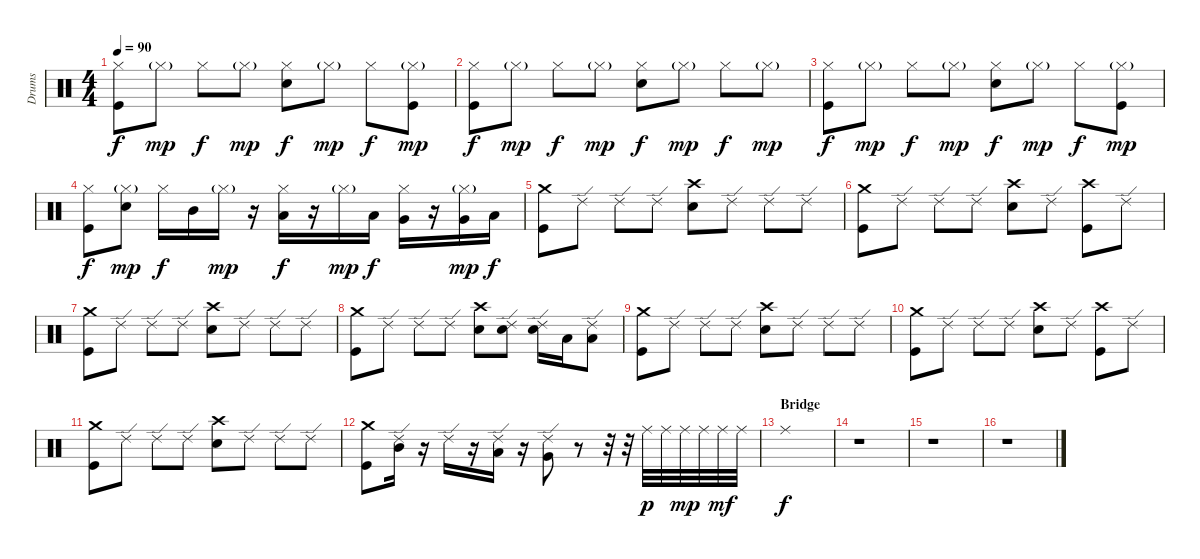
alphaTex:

\track ("Drums" "Drums") {instrument percussion}
\staff {score}
\articulation defaults
\ts (4 4)
\tempo 90
\clef neutral
\ks c
("Hi-Hat (closed)" "Kick (hit)").8{dy f} "Hi-Hat (closed)"{g}.8{dy mp} "Hi-Hat (closed)".8{dy f} "Hi-Hat (closed)"{g}.8{dy mp} ("Hi-Hat (closed)" "Electric Snare (hit)").8{dy f} "Hi-Hat (closed)"{g}.8{dy mp} "Hi-Hat (closed)".8{dy f} ("Hi-Hat (closed)"{g} "Kick (hit)").8{dy mp} |
("Hi-Hat (closed)" "Kick (hit)").8{dy f} "Hi-Hat (closed)"{g}.8{dy mp} "Hi-Hat (closed)".8{dy f} "Hi-Hat (closed)"{g}.8{dy mp} ("Hi-Hat (closed)" "Electric Snare (hit)").8{dy f} "Hi-Hat (closed)"{g}.8{dy mp} "Hi-Hat (closed)".8{dy f} "Hi-Hat (closed)"{g}.8{dy mp} |
("Hi-Hat (closed)" "Kick (hit)").8{dy f} "Hi-Hat (closed)"{g}.8{dy mp} "Hi-Hat (closed)".8{dy f} "Hi-Hat (closed)"{g}.8{dy mp} ("Hi-Hat (closed)" "Electric Snare (hit)").8{dy f} "Hi-Hat (closed)"{g}.8{dy mp} "Hi-Hat (closed)".8{dy f} ("Hi-Hat (closed)"{g} "Kick (hit)").8{dy mp} |
("Hi-Hat (closed)" "Kick (hit)").8{dy f} ("Hi-Hat (closed)"{g} "Electric Snare (hit)").8{dy mp} "Hi-Hat (closed)".16{dy f} "Mid Tom (hit)".16 "Hi-Hat (closed)"{g}.16{dy mp} r.16 ("Hi-Hat (closed)" "Low Tom (hit)").16{dy f} r.16 "Hi-Hat (closed)"{g}.16{dy mp} "Low Tom (hit)".16{dy f} ("Hi-Hat (closed)" "Very Low Tom (hit)").16 r.16 ("Hi-Hat (closed)"{g} "Very Low Tom (hit)").16{dy mp} "Low Floor Tom (hit)".16{dy f} |
("Crash medium (hit)" "Kick (hit)").8 "Ride (edge) 2".8 "Ride (edge) 2".8 "Ride (edge) 2".8 ("Crash high (hit)" "Electric Snare (hit)").8 "Ride (edge) 2".8 "Ride (edge) 2".8 "Ride (edge) 2".8 |
("Crash medium (hit)" "Kick (hit)").8 "Ride (edge) 2".8 "Ride (edge) 2".8 "Ride (edge) 2".8 ("Crash high (hit)" "Electric Snare (hit)").8 "Ride (edge) 2".8 ("Crash high (hit)" "Kick (hit)").8 "Ride (edge) 2".8 |
("Crash medium (hit)" "Kick (hit)").8 "Ride (edge) 2".8 "Ride (edge) 2".8 "Ride (edge) 2".8 ("Crash high (hit)" "Electric Snare (hit)").8 "Ride (edge) 2".8 "Ride (edge) 2".8 "Ride (edge) 2".8 |
("Crash medium (hit)" "Kick (hit)").8 "Ride (edge) 2".8 "Ride (edge) 2".8 "Ride (edge) 2".8 ("Crash high (hit)" "Electric Snare (hit)").8 ("Ride (edge) 2" "Electric Snare (hit)").8 ("Ride (edge) 2" "Electric Snare (hit)").16 "Low Floor Tom (hit)".16 ("Ride (edge) 2" "Low Tom (hit)").8 |
("Crash medium (hit)" "Kick (hit)").8 "Ride (edge) 2".8 "Ride (edge) 2".8 "Ride (edge) 2".8 ("Crash high (hit)" "Electric Snare (hit)").8 "Ride (edge) 2".8 "Ride (edge) 2".8 "Ride (edge) 2".8 |
("Crash medium (hit)" "Kick (hit)").8 "Ride (edge) 2".8 "Ride (edge) 2".8 "Ride (edge) 2".8 ("Crash high (hit)" "Electric Snare (hit)").8 "Ride (edge) 2".8 ("Crash high (hit)" "Kick (hit)").8 "Ride (edge) 2".8 |
("Crash medium (hit)" "Kick (hit)").8 "Ride (edge) 2".8 "Ride (edge) 2".8 "Ride (edge) 2".8 ("Crash high (hit)" "Electric Snare (hit)").8 "Ride (edge) 2".8 "Ride (edge) 2".8 "Ride (edge) 2".8 |
("Crash medium (hit)" "Kick (hit)").8 ("Ride (edge) 2" "Mid Tom (hit)").16 r.16 "Ride (edge) 2".16 r.16 ("Ride (edge) 2" "Low Tom (hit)").16 r.16 ("Ride (edge) 2" "Very Low Tom (hit)").8 r.8 r.32 r.32 "Ride (middle)".32{dy p} "Ride (middle)".32 "Ride (middle)".32{dy mp} "Ride (middle)".32 "Ride (middle)".32{dy mf} "Ride (middle)".32 |
\section ("" "Bridge")
"Ride (middle)".1{dy f} |
r.1 |
r.1 |
r.1
